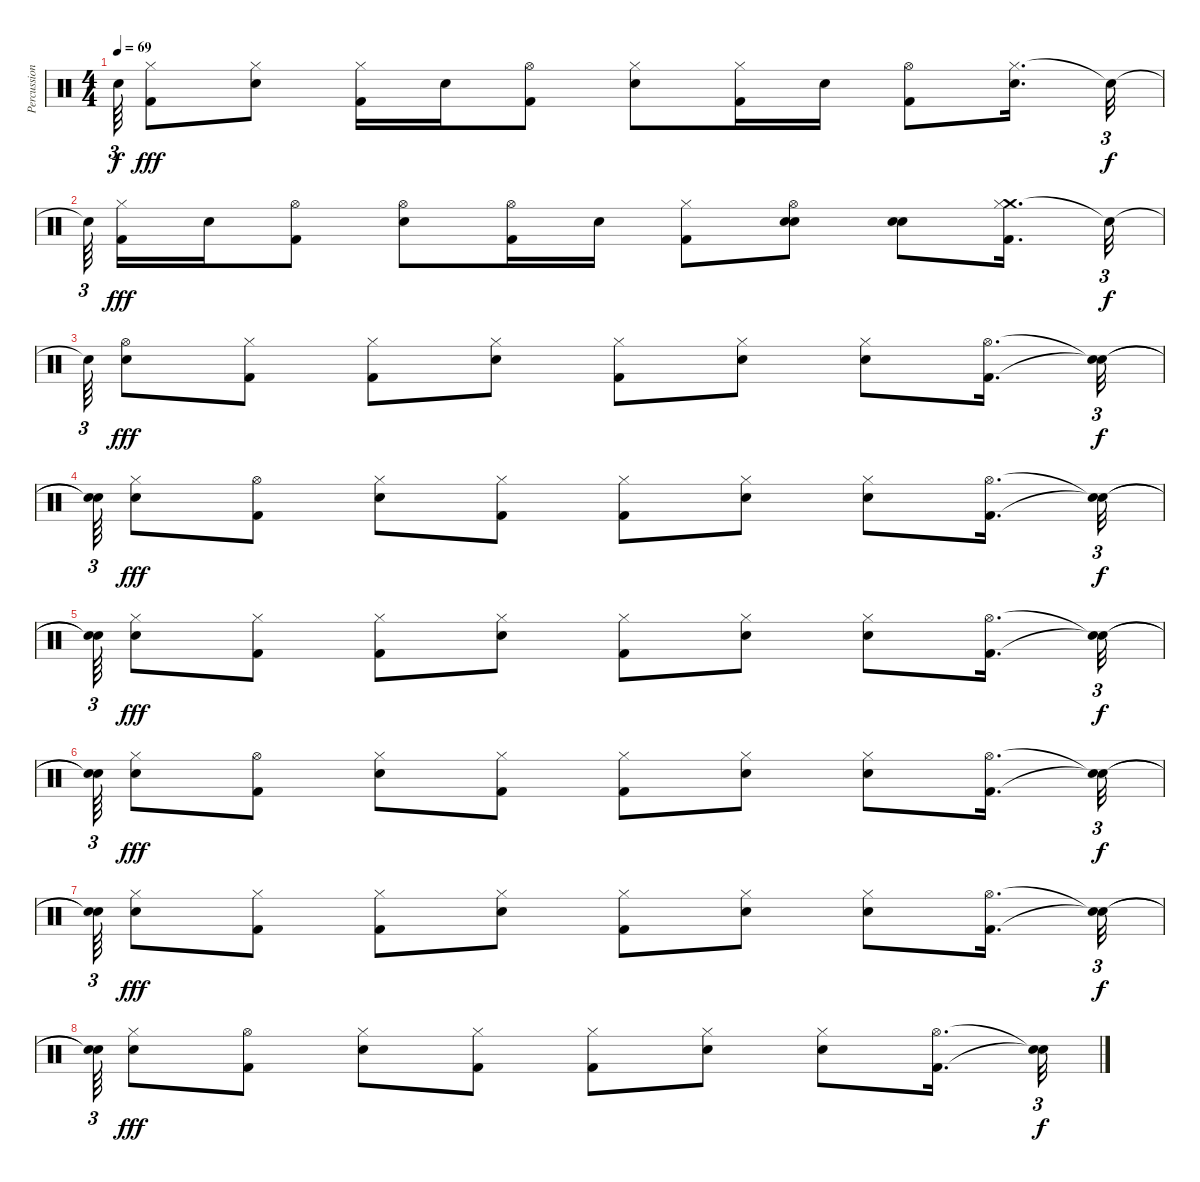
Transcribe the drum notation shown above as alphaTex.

\track ("Percussioni" "Percussion") {instrument percussion}
\staff {score}
\articulation defaults
\ts (4 4)
\tempo 69
\clef neutral
\ks c "Snare (hit)"{t}.64{tu (3 2) dy f}
("Hi-Hat (closed)" "Kick (hit) 2").8{dy fff} ("Hi-Hat (closed)" "Snare (hit) 2").8 ("Hi-Hat (closed)" "Kick (hit) 2").16 "Snare (hit) 2".16 ("Hi-Hat (open)" "Kick (hit) 2").8 ("Hi-Hat (closed)" "Snare (hit) 2").8 ("Hi-Hat (closed)" "Kick (hit) 2").16 "Snare (hit) 2".16 ("Hi-Hat (open)" "Kick (hit) 2").8 ("Hi-Hat (closed)" "Snare (hit) 2").16{d} "Snare (hit)"{t}.32{tu (3 2) dy f} |
"Snare (hit)"{t}.64{tu (3 2) beam splitsecondary} ("Hi-Hat (closed)" "Kick (hit) 2").16{dy fff} "Snare (hit) 2".16 ("Hi-Hat (open)" "Kick (hit) 2").8 ("Hi-Hat (open)" "Snare (hit) 2").8 ("Hi-Hat (open)" "Kick (hit) 2").16 "Snare (hit) 2".16 ("Hi-Hat (closed)" "Kick (hit) 2").8 ("Hi-Hat (open)" "Snare (hit) 2" "Snare (hit) 2").8 ("Snare (hit) 2" "Snare (hit) 2").8 ("Crash medium (hit)" "Hi-Hat (closed)" "Kick (hit) 2").16{d} "Snare (hit)"{t}.32{tu (3 2) dy f} |
"Snare (hit)"{t}.64{tu (3 2)} ("Hi-Hat (open)" "Snare (hit) 2").8{dy fff} ("Hi-Hat (closed)" "Kick (hit) 2").8 ("Hi-Hat (closed)" "Kick (hit) 2").8 ("Hi-Hat (closed)" "Snare (hit) 2").8 ("Hi-Hat (closed)" "Kick (hit) 2").8 ("Hi-Hat (closed)" "Snare (hit) 2").8 ("Hi-Hat (closed)" "Snare (hit) 2").8 ("Hi-Hat (open)" "Kick (hit) 2").16{d} ("Snare (hit)"{t} "Snare (hit)"{t}).32{tu (3 2) dy f} |
("Snare (hit)"{t} "Snare (hit)"{t}).64{tu (3 2)} ("Hi-Hat (closed)" "Snare (hit) 2").8{dy fff} ("Hi-Hat (open)" "Kick (hit) 2").8 ("Hi-Hat (closed)" "Snare (hit) 2").8 ("Hi-Hat (closed)" "Kick (hit) 2").8 ("Hi-Hat (closed)" "Kick (hit) 2").8 ("Hi-Hat (closed)" "Snare (hit) 2").8 ("Hi-Hat (closed)" "Snare (hit) 2").8 ("Hi-Hat (open)" "Kick (hit) 2").16{d} ("Snare (hit)"{t} "Snare (hit)"{t}).32{tu (3 2) dy f} |
("Snare (hit)"{t} "Snare (hit)"{t}).64{tu (3 2)} ("Hi-Hat (closed)" "Snare (hit) 2").8{dy fff} ("Hi-Hat (closed)" "Kick (hit) 2").8 ("Hi-Hat (closed)" "Kick (hit) 2").8 ("Hi-Hat (closed)" "Snare (hit) 2").8 ("Hi-Hat (closed)" "Kick (hit) 2").8 ("Hi-Hat (closed)" "Snare (hit) 2").8 ("Hi-Hat (closed)" "Snare (hit) 2").8 ("Hi-Hat (open)" "Kick (hit) 2").16{d} ("Snare (hit)"{t} "Snare (hit)"{t}).32{tu (3 2) dy f} |
("Snare (hit)"{t} "Snare (hit)"{t}).64{tu (3 2)} ("Hi-Hat (closed)" "Snare (hit) 2").8{dy fff} ("Hi-Hat (open)" "Kick (hit) 2").8 ("Hi-Hat (closed)" "Snare (hit) 2").8 ("Hi-Hat (closed)" "Kick (hit) 2").8 ("Hi-Hat (closed)" "Kick (hit) 2").8 ("Hi-Hat (closed)" "Snare (hit) 2").8 ("Hi-Hat (closed)" "Snare (hit) 2").8 ("Hi-Hat (open)" "Kick (hit) 2").16{d} ("Snare (hit)"{t} "Snare (hit)"{t}).32{tu (3 2) dy f} |
("Snare (hit)"{t} "Snare (hit)"{t}).64{tu (3 2)} ("Hi-Hat (closed)" "Snare (hit) 2").8{dy fff} ("Hi-Hat (closed)" "Kick (hit) 2").8 ("Hi-Hat (closed)" "Kick (hit) 2").8 ("Hi-Hat (closed)" "Snare (hit) 2").8 ("Hi-Hat (closed)" "Kick (hit) 2").8 ("Hi-Hat (closed)" "Snare (hit) 2").8 ("Hi-Hat (closed)" "Snare (hit) 2").8 ("Hi-Hat (open)" "Kick (hit) 2").16{d} ("Snare (hit)"{t} "Snare (hit)"{t}).32{tu (3 2) dy f} |
("Snare (hit)"{t} "Snare (hit)"{t}).64{tu (3 2)} ("Hi-Hat (closed)" "Snare (hit) 2").8{dy fff} ("Hi-Hat (open)" "Kick (hit) 2").8 ("Hi-Hat (closed)" "Snare (hit) 2").8 ("Hi-Hat (closed)" "Kick (hit) 2").8 ("Hi-Hat (closed)" "Kick (hit) 2").8 ("Hi-Hat (closed)" "Snare (hit) 2").8 ("Hi-Hat (closed)" "Snare (hit) 2").8 ("Hi-Hat (open)" "Kick (hit) 2").16{d} ("Snare (hit)"{t} "Snare (hit)"{t}).32{tu (3 2) dy f}
